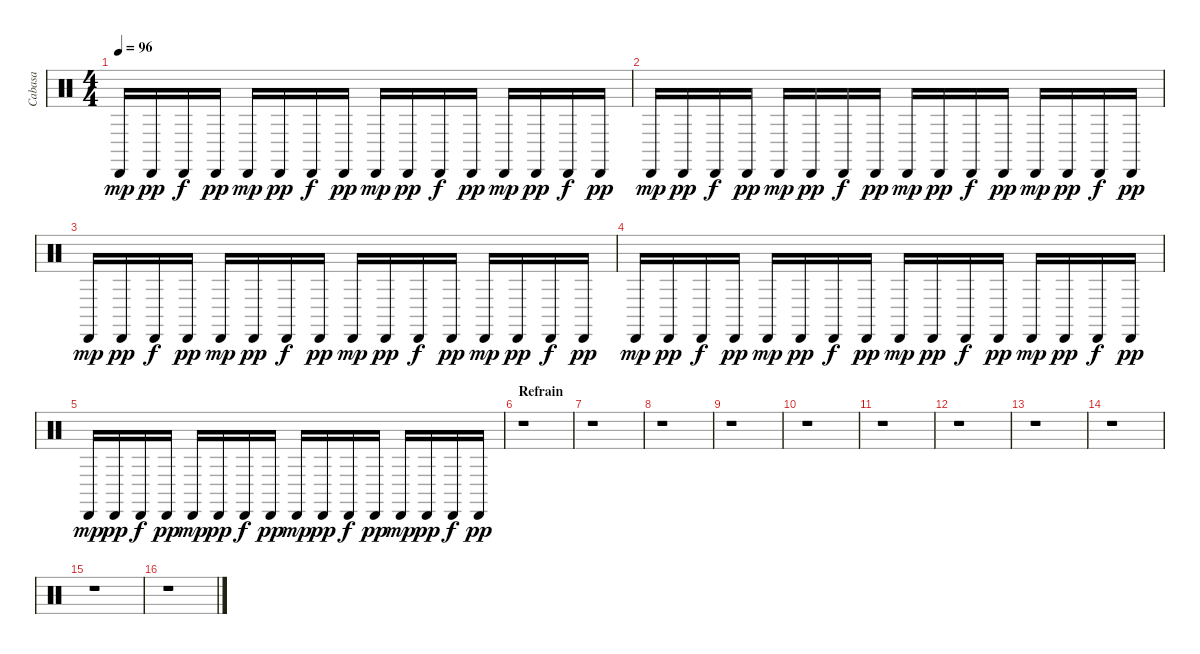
\track ("Cabasa" "Cabasa") {instrument percussion}
\staff {score}
\articulation defaults
\ts (4 4)
\tempo 96
\clef neutral
\ks c "Cabasa (hit)".16{dy mp} "Cabasa (hit)".16{dy pp} "Cabasa (hit)".16{dy f} "Cabasa (hit)".16{dy pp} "Cabasa (hit)".16{dy mp} "Cabasa (hit)".16{dy pp} "Cabasa (hit)".16{dy f} "Cabasa (hit)".16{dy pp} "Cabasa (hit)".16{dy mp} "Cabasa (hit)".16{dy pp} "Cabasa (hit)".16{dy f} "Cabasa (hit)".16{dy pp} "Cabasa (hit)".16{dy mp} "Cabasa (hit)".16{dy pp} "Cabasa (hit)".16{dy f} "Cabasa (hit)".16{dy pp}
|
"Cabasa (hit)".16{dy mp} "Cabasa (hit)".16{dy pp} "Cabasa (hit)".16{dy f} "Cabasa (hit)".16{dy pp} "Cabasa (hit)".16{dy mp} "Cabasa (hit)".16{dy pp} "Cabasa (hit)".16{dy f} "Cabasa (hit)".16{dy pp} "Cabasa (hit)".16{dy mp} "Cabasa (hit)".16{dy pp} "Cabasa (hit)".16{dy f} "Cabasa (hit)".16{dy pp} "Cabasa (hit)".16{dy mp} "Cabasa (hit)".16{dy pp} "Cabasa (hit)".16{dy f} "Cabasa (hit)".16{dy pp} |
"Cabasa (hit)".16{dy mp} "Cabasa (hit)".16{dy pp} "Cabasa (hit)".16{dy f} "Cabasa (hit)".16{dy pp} "Cabasa (hit)".16{dy mp} "Cabasa (hit)".16{dy pp} "Cabasa (hit)".16{dy f} "Cabasa (hit)".16{dy pp} "Cabasa (hit)".16{dy mp} "Cabasa (hit)".16{dy pp} "Cabasa (hit)".16{dy f} "Cabasa (hit)".16{dy pp} "Cabasa (hit)".16{dy mp} "Cabasa (hit)".16{dy pp} "Cabasa (hit)".16{dy f} "Cabasa (hit)".16{dy pp} |
"Cabasa (hit)".16{dy mp} "Cabasa (hit)".16{dy pp} "Cabasa (hit)".16{dy f} "Cabasa (hit)".16{dy pp} "Cabasa (hit)".16{dy mp} "Cabasa (hit)".16{dy pp} "Cabasa (hit)".16{dy f} "Cabasa (hit)".16{dy pp} "Cabasa (hit)".16{dy mp} "Cabasa (hit)".16{dy pp} "Cabasa (hit)".16{dy f} "Cabasa (hit)".16{dy pp} "Cabasa (hit)".16{dy mp} "Cabasa (hit)".16{dy pp} "Cabasa (hit)".16{dy f} "Cabasa (hit)".16{dy pp} |
"Cabasa (hit)".16{dy mp} "Cabasa (hit)".16{dy pp} "Cabasa (hit)".16{dy f} "Cabasa (hit)".16{dy pp} "Cabasa (hit)".16{dy mp} "Cabasa (hit)".16{dy pp} "Cabasa (hit)".16{dy f} "Cabasa (hit)".16{dy pp} "Cabasa (hit)".16{dy mp} "Cabasa (hit)".16{dy pp} "Cabasa (hit)".16{dy f} "Cabasa (hit)".16{dy pp} "Cabasa (hit)".16{dy mp} "Cabasa (hit)".16{dy pp} "Cabasa (hit)".16{dy f} "Cabasa (hit)".16{dy pp} |
\section ("" "Refrain")
r.1 |
r.1 |
r.1 |
r.1 |
r.1 |
r.1 |
r.1 |
r.1 |
r.1 |
r.1 |
r.1
